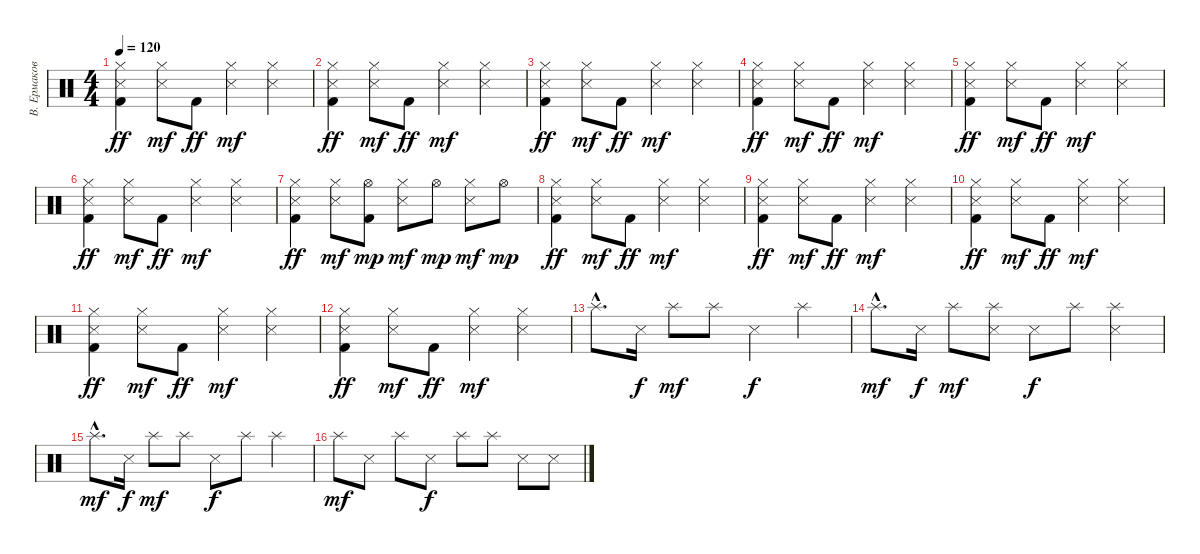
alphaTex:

\track ("В. Ермаков" "В. Ермаков") {instrument percussion}
\staff {score}
\articulation defaults
\ts (4 4)
\tempo 120
\clef neutral
\ks c
("Snare (side stick) 3" "Kick (hit) 2" "Hi-Hat (closed)").4{dy ff} ("Snare (side stick) 3" "Hi-Hat (closed)").8{dy mf} "Kick (hit) 2".8{dy ff} ("Snare (side stick) 3" "Hi-Hat (closed)").4{dy mf} ("Snare (side stick) 3" "Hi-Hat (closed)").4 |
("Snare (side stick) 3" "Kick (hit) 2" "Hi-Hat (closed)").4{dy ff} ("Snare (side stick) 3" "Hi-Hat (closed)").8{dy mf} "Kick (hit) 2".8{dy ff} ("Snare (side stick) 3" "Hi-Hat (closed)").4{dy mf} ("Snare (side stick) 3" "Hi-Hat (closed)").4 |
("Snare (side stick) 3" "Kick (hit) 2" "Hi-Hat (closed)").4{dy ff} ("Snare (side stick) 3" "Hi-Hat (closed)").8{dy mf} "Kick (hit) 2".8{dy ff} ("Snare (side stick) 3" "Hi-Hat (closed)").4{dy mf} ("Snare (side stick) 3" "Hi-Hat (closed)").4 |
("Snare (side stick) 3" "Kick (hit) 2" "Hi-Hat (closed)").4{dy ff} ("Snare (side stick) 3" "Hi-Hat (closed)").8{dy mf} "Kick (hit) 2".8{dy ff} ("Snare (side stick) 3" "Hi-Hat (closed)").4{dy mf} ("Snare (side stick) 3" "Hi-Hat (closed)").4 |
("Snare (side stick) 3" "Kick (hit) 2" "Hi-Hat (closed)").4{dy ff} ("Snare (side stick) 3" "Hi-Hat (closed)").8{dy mf} "Kick (hit) 2".8{dy ff} ("Snare (side stick) 3" "Hi-Hat (closed)").4{dy mf} ("Snare (side stick) 3" "Hi-Hat (closed)").4 |
("Snare (side stick) 3" "Kick (hit) 2" "Hi-Hat (closed)").4{dy ff} ("Snare (side stick) 3" "Hi-Hat (closed)").8{dy mf} "Kick (hit) 2".8{dy ff} ("Snare (side stick) 3" "Hi-Hat (closed)").4{dy mf} ("Snare (side stick) 3" "Hi-Hat (closed)").4 |
("Snare (side stick) 3" "Kick (hit) 2" "Hi-Hat (closed)").4{dy ff} ("Snare (side stick) 3" "Hi-Hat (closed)").8{dy mf} ("Kick (hit) 2" "Hi-Hat (open)").8{dy mp} ("Snare (side stick) 3" "Hi-Hat (closed)").8{dy mf} "Hi-Hat (open)".8{dy mp} ("Snare (side stick) 3" "Hi-Hat (closed)").8{dy mf} "Hi-Hat (open)".8{dy mp} |
("Snare (side stick) 3" "Kick (hit) 2" "Hi-Hat (closed)").4{dy ff} ("Snare (side stick) 3" "Hi-Hat (closed)").8{dy mf} "Kick (hit) 2".8{dy ff} ("Snare (side stick) 3" "Hi-Hat (closed)").4{dy mf} ("Snare (side stick) 3" "Hi-Hat (closed)").4 |
("Snare (side stick) 3" "Kick (hit) 2" "Hi-Hat (closed)").4{dy ff} ("Snare (side stick) 3" "Hi-Hat (closed)").8{dy mf} "Kick (hit) 2".8{dy ff} ("Snare (side stick) 3" "Hi-Hat (closed)").4{dy mf} ("Snare (side stick) 3" "Hi-Hat (closed)").4 |
("Snare (side stick) 3" "Kick (hit) 2" "Hi-Hat (closed)").4{dy ff} ("Snare (side stick) 3" "Hi-Hat (closed)").8{dy mf} "Kick (hit) 2".8{dy ff} ("Snare (side stick) 3" "Hi-Hat (closed)").4{dy mf} ("Snare (side stick) 3" "Hi-Hat (closed)").4 |
("Snare (side stick) 3" "Kick (hit) 2" "Hi-Hat (closed)").4{dy ff} ("Snare (side stick) 3" "Hi-Hat (closed)").8{dy mf} "Kick (hit) 2".8{dy ff} ("Snare (side stick) 3" "Hi-Hat (closed)").4{dy mf} ("Snare (side stick) 3" "Hi-Hat (closed)").4 |
("Snare (side stick) 3" "Kick (hit) 2" "Hi-Hat (closed)").4{dy ff} ("Snare (side stick) 3" "Hi-Hat (closed)").8{dy mf} "Kick (hit) 2".8{dy ff} ("Snare (side stick) 3" "Hi-Hat (closed)").4{dy mf} ("Snare (side stick) 3" "Hi-Hat (closed)").4 |
"Splash (hit)"{hac}.8{d} "Snare (side stick) 3".16{dy f} "Splash (hit)".8{dy mf} "Splash (hit)".8 "Snare (side stick) 3".4{dy f} "Splash (hit)".4 |
"Splash (hit)"{hac}.8{d dy mf} "Snare (side stick) 3".16{dy f} "Splash (hit)".8{dy mf} ("Snare (side stick) 3" "Splash (hit)").8 "Snare (side stick) 3".8{dy f} "Splash (hit)".8 ("Snare (side stick) 3" "Splash (hit)").4 |
"Splash (hit)"{hac}.8{d dy mf} "Snare (side stick) 3".16{dy f} "Splash (hit)".8{dy mf} "Splash (hit)".8 "Snare (side stick) 3".8{dy f} "Splash (hit)".8 "Splash (hit)".4 |
"Splash (hit)".8{dy mf} "Snare (side stick) 3".8 "Splash (hit)".8 "Snare (side stick) 3".8{dy f} "Splash (hit)".8 "Splash (hit)".8 "Snare (side stick) 3".8 "Snare (side stick) 3".8
